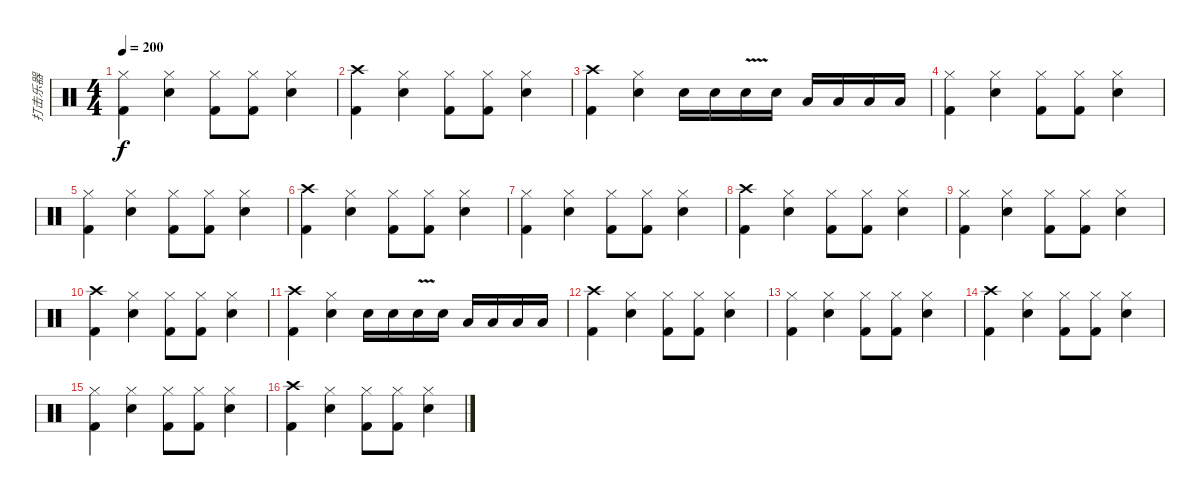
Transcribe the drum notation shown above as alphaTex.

\track ("打击乐器" "打击乐器") {instrument percussion}
\staff {score}
\articulation defaults
\ts (4 4)
\tempo 200
\clef neutral
\ks c
("Hi-Hat (closed)" "Kick (hit) 2").4{dy f} ("Hi-Hat (closed)" "Snare (hit) 2").4 ("Hi-Hat (closed)" "Kick (hit) 2").8 ("Hi-Hat (closed)" "Kick (hit) 2").8 ("Hi-Hat (closed)" "Snare (hit) 2").4 |
("Crash high (hit)" "Kick (hit) 2").4 ("Hi-Hat (closed)" "Snare (hit) 2").4 ("Hi-Hat (closed)" "Kick (hit) 2").8 ("Hi-Hat (closed)" "Kick (hit) 2").8 ("Hi-Hat (closed)" "Snare (hit) 2").4 |
("Crash high (hit)" "Kick (hit) 2").4 ("Hi-Hat (closed)" "Snare (hit) 2").4 "Snare (hit) 2".16 "Snare (hit) 2".16 "Snare (hit) 2"{v}.16 "Snare (hit) 2".16 "Low Floor Tom (hit)".16 "Low Floor Tom (hit)".16 "Low Tom (hit)".16 "Low Tom (hit)".16 |
("Hi-Hat (closed)" "Kick (hit) 2").4 ("Hi-Hat (closed)" "Snare (hit) 2").4 ("Hi-Hat (closed)" "Kick (hit) 2").8 ("Hi-Hat (closed)" "Kick (hit) 2").8 ("Hi-Hat (closed)" "Snare (hit) 2").4 |
("Hi-Hat (closed)" "Kick (hit) 2").4 ("Hi-Hat (closed)" "Snare (hit) 2").4 ("Hi-Hat (closed)" "Kick (hit) 2").8 ("Hi-Hat (closed)" "Kick (hit) 2").8 ("Hi-Hat (closed)" "Snare (hit) 2").4 |
("Crash high (hit)" "Kick (hit) 2").4 ("Hi-Hat (closed)" "Snare (hit) 2").4 ("Hi-Hat (closed)" "Kick (hit) 2").8 ("Hi-Hat (closed)" "Kick (hit) 2").8 ("Hi-Hat (closed)" "Snare (hit) 2").4 |
("Hi-Hat (closed)" "Kick (hit) 2").4 ("Hi-Hat (closed)" "Snare (hit) 2").4 ("Hi-Hat (closed)" "Kick (hit) 2").8 ("Hi-Hat (closed)" "Kick (hit) 2").8 ("Hi-Hat (closed)" "Snare (hit) 2").4 |
("Crash high (hit)" "Kick (hit) 2").4 ("Hi-Hat (closed)" "Snare (hit) 2").4 ("Hi-Hat (closed)" "Kick (hit) 2").8 ("Hi-Hat (closed)" "Kick (hit) 2").8 ("Hi-Hat (closed)" "Snare (hit) 2").4 |
("Hi-Hat (closed)" "Kick (hit) 2").4 ("Hi-Hat (closed)" "Snare (hit) 2").4 ("Hi-Hat (closed)" "Kick (hit) 2").8 ("Hi-Hat (closed)" "Kick (hit) 2").8 ("Hi-Hat (closed)" "Snare (hit) 2").4 |
("Crash high (hit)" "Kick (hit) 2").4 ("Hi-Hat (closed)" "Snare (hit) 2").4 ("Hi-Hat (closed)" "Kick (hit) 2").8 ("Hi-Hat (closed)" "Kick (hit) 2").8 ("Hi-Hat (closed)" "Snare (hit) 2").4 |
("Crash high (hit)" "Kick (hit) 2").4 ("Hi-Hat (closed)" "Snare (hit) 2").4 "Snare (hit) 2".16 "Snare (hit) 2".16 "Snare (hit) 2"{v}.16 "Snare (hit) 2".16 "Low Floor Tom (hit)".16 "Low Floor Tom (hit)".16 "Low Tom (hit)".16 "Low Tom (hit)".16 |
("Crash high (hit)" "Kick (hit) 2").4 ("Hi-Hat (closed)" "Snare (hit) 2").4 ("Hi-Hat (closed)" "Kick (hit) 2").8 ("Hi-Hat (closed)" "Kick (hit) 2").8 ("Hi-Hat (closed)" "Snare (hit) 2").4 |
("Hi-Hat (closed)" "Kick (hit) 2").4 ("Hi-Hat (closed)" "Snare (hit) 2").4 ("Hi-Hat (closed)" "Kick (hit) 2").8 ("Hi-Hat (closed)" "Kick (hit) 2").8 ("Hi-Hat (closed)" "Snare (hit) 2").4 |
("Crash high (hit)" "Kick (hit) 2").4 ("Hi-Hat (closed)" "Snare (hit) 2").4 ("Hi-Hat (closed)" "Kick (hit) 2").8 ("Hi-Hat (closed)" "Kick (hit) 2").8 ("Hi-Hat (closed)" "Snare (hit) 2").4 |
("Hi-Hat (closed)" "Kick (hit) 2").4 ("Hi-Hat (closed)" "Snare (hit) 2").4 ("Hi-Hat (closed)" "Kick (hit) 2").8 ("Hi-Hat (closed)" "Kick (hit) 2").8 ("Hi-Hat (closed)" "Snare (hit) 2").4 |
("Crash high (hit)" "Kick (hit) 2").4 ("Hi-Hat (closed)" "Snare (hit) 2").4 ("Hi-Hat (closed)" "Kick (hit) 2").8 ("Hi-Hat (closed)" "Kick (hit) 2").8 ("Hi-Hat (closed)" "Snare (hit) 2").4
